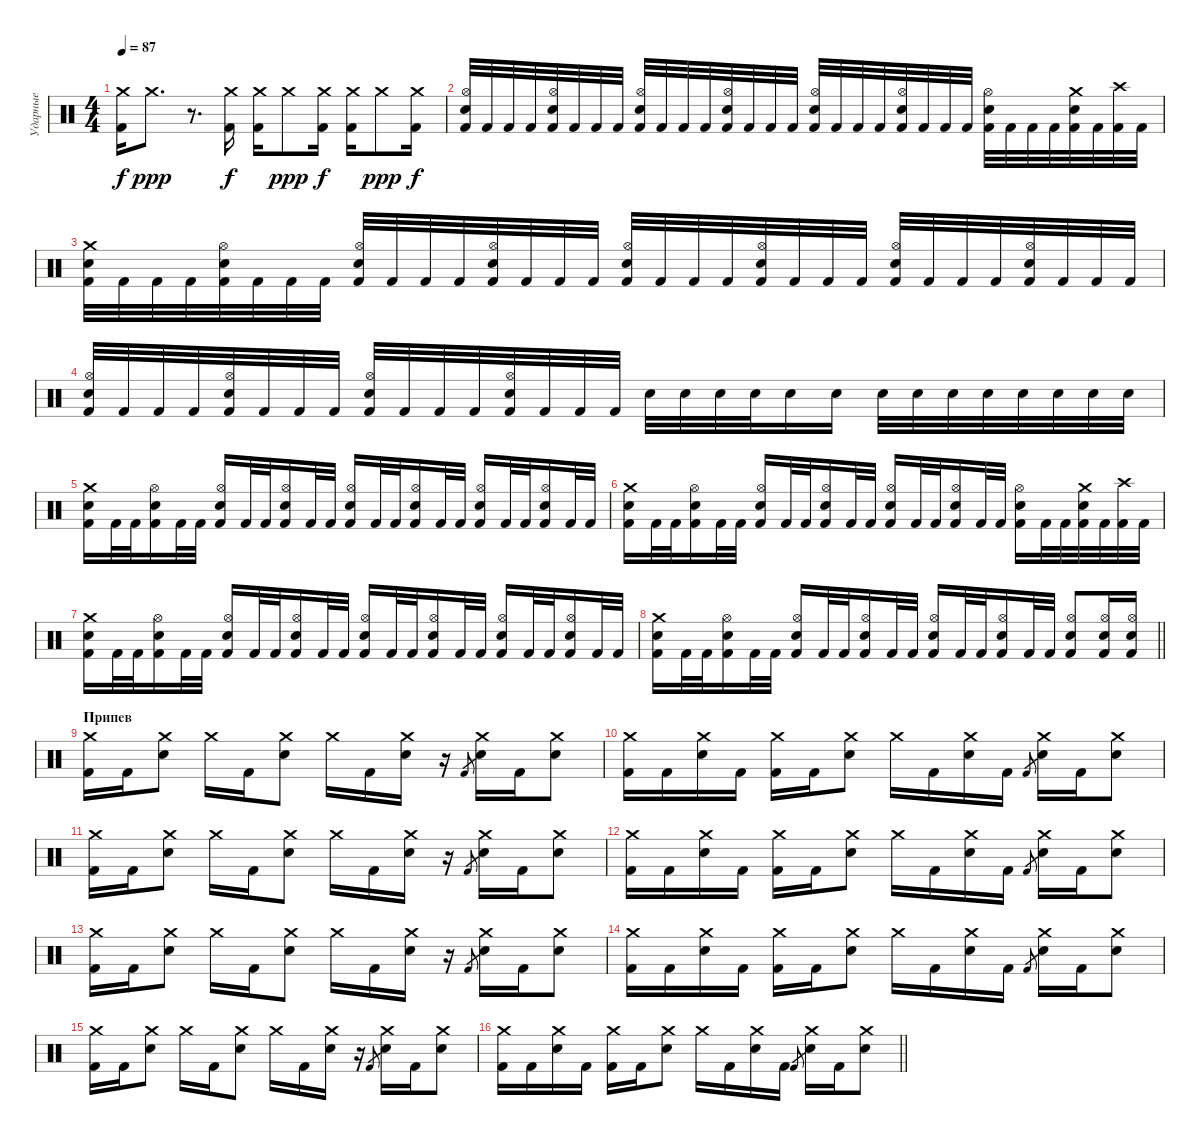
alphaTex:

\track ("Ударные" "Ударные") {instrument percussion}
\staff {score}
\articulation defaults
\ts (4 4)
\tempo 87
\clef neutral
\ks c
("Crash medium (hit)" "Kick (hit) 2").16{dy f} "Crash medium (hit)".8{d dy ppp} r.8{d} ("Crash medium (hit)" "Kick (hit) 2").16{dy f} ("Crash medium (hit)" "Kick (hit) 2").16 "Crash medium (hit)".8{dy ppp} ("Crash medium (hit)" "Kick (hit) 2").16{dy f} ("Crash medium (hit)" "Kick (hit) 2").16 "Crash medium (hit)".8{dy ppp} ("Crash medium (hit)" "Kick (hit) 2").16{dy f} |
("Hi-Hat (open)" "Electric Snare (hit)" "Kick (hit) 2").32 "Kick (hit) 2".32 "Kick (hit) 2".32 "Kick (hit) 2".32 ("Hi-Hat (open)" "Electric Snare (hit)" "Kick (hit) 2").32 "Kick (hit) 2".32 "Kick (hit) 2".32 "Kick (hit) 2".32 ("Hi-Hat (open)" "Electric Snare (hit)" "Kick (hit) 2").32 "Kick (hit) 2".32 "Kick (hit) 2".32 "Kick (hit) 2".32 ("Hi-Hat (open)" "Electric Snare (hit)" "Kick (hit) 2").32 "Kick (hit) 2".32 "Kick (hit) 2".32 "Kick (hit) 2".32 ("Hi-Hat (open)" "Electric Snare (hit)" "Kick (hit) 2").32 "Kick (hit) 2".32 "Kick (hit) 2".32 "Kick (hit) 2".32 ("Hi-Hat (open)" "Electric Snare (hit)" "Kick (hit) 2").32 "Kick (hit) 2".32 "Kick (hit) 2".32 "Kick (hit) 2".32 ("Hi-Hat (open)" "Electric Snare (hit)" "Kick (hit) 2").32 "Kick (hit) 2".32 "Kick (hit) 2".32 "Kick (hit) 2".32 ("Crash medium (hit)" "Electric Snare (hit)" "Kick (hit) 2").32 "Kick (hit) 2".32 ("Crash high (hit)" "Kick (hit) 2").32 "Kick (hit) 2".32 |
("Crash medium (hit)" "Electric Snare (hit)" "Kick (hit) 2").32 "Kick (hit) 2".32 "Kick (hit) 2".32 "Kick (hit) 2".32 ("Hi-Hat (open)" "Electric Snare (hit)" "Kick (hit) 2").32 "Kick (hit) 2".32 "Kick (hit) 2".32 "Kick (hit) 2".32 ("Hi-Hat (open)" "Electric Snare (hit)" "Kick (hit) 2").32 "Kick (hit) 2".32 "Kick (hit) 2".32 "Kick (hit) 2".32 ("Hi-Hat (open)" "Electric Snare (hit)" "Kick (hit) 2").32 "Kick (hit) 2".32 "Kick (hit) 2".32 "Kick (hit) 2".32 ("Hi-Hat (open)" "Electric Snare (hit)" "Kick (hit) 2").32 "Kick (hit) 2".32 "Kick (hit) 2".32 "Kick (hit) 2".32 ("Hi-Hat (open)" "Electric Snare (hit)" "Kick (hit) 2").32 "Kick (hit) 2".32 "Kick (hit) 2".32 "Kick (hit) 2".32 ("Hi-Hat (open)" "Electric Snare (hit)" "Kick (hit) 2").32 "Kick (hit) 2".32 "Kick (hit) 2".32 "Kick (hit) 2".32 ("Hi-Hat (open)" "Electric Snare (hit)" "Kick (hit) 2").32 "Kick (hit) 2".32 "Kick (hit) 2".32 "Kick (hit) 2".32 |
("Hi-Hat (open)" "Electric Snare (hit)" "Kick (hit) 2").32 "Kick (hit) 2".32 "Kick (hit) 2".32 "Kick (hit) 2".32 ("Hi-Hat (open)" "Electric Snare (hit)" "Kick (hit) 2").32 "Kick (hit) 2".32 "Kick (hit) 2".32 "Kick (hit) 2".32 ("Hi-Hat (open)" "Electric Snare (hit)" "Kick (hit) 2").32 "Kick (hit) 2".32 "Kick (hit) 2".32 "Kick (hit) 2".32 ("Hi-Hat (open)" "Electric Snare (hit)" "Kick (hit) 2").32 "Kick (hit) 2".32 "Kick (hit) 2".32 "Kick (hit) 2".32 "Electric Snare (hit)".32 "Electric Snare (hit)".32 "Electric Snare (hit)".32 "Electric Snare (hit)".32 "Electric Snare (hit)".16 "Electric Snare (hit)".16 "Electric Snare (hit)".32 "Electric Snare (hit)".32 "Electric Snare (hit)".32 "Electric Snare (hit)".32 "Electric Snare (hit)".32 "Electric Snare (hit)".32 "Electric Snare (hit)".32 "Electric Snare (hit)".32 |
("Crash medium (hit)" "Electric Snare (hit)" "Kick (hit) 2").16 "Kick (hit) 2".32 "Kick (hit) 2".32 ("Hi-Hat (open)" "Electric Snare (hit)" "Kick (hit) 2").16 "Kick (hit) 2".32 "Kick (hit) 2".32 ("Hi-Hat (open)" "Electric Snare (hit)" "Kick (hit) 2").16 "Kick (hit) 2".32 "Kick (hit) 2".32 ("Hi-Hat (open)" "Electric Snare (hit)" "Kick (hit) 2").16 "Kick (hit) 2".32 "Kick (hit) 2".32 ("Hi-Hat (open)" "Electric Snare (hit)" "Kick (hit) 2").16 "Kick (hit) 2".32 "Kick (hit) 2".32 ("Hi-Hat (open)" "Electric Snare (hit)" "Kick (hit) 2").16 "Kick (hit) 2".32 "Kick (hit) 2".32 ("Hi-Hat (open)" "Electric Snare (hit)" "Kick (hit) 2").16 "Kick (hit) 2".32 "Kick (hit) 2".32 ("Hi-Hat (open)" "Electric Snare (hit)" "Kick (hit) 2").16 "Kick (hit) 2".32 "Kick (hit) 2".32 |
("Crash medium (hit)" "Electric Snare (hit)" "Kick (hit) 2").16 "Kick (hit) 2".32 "Kick (hit) 2".32 ("Hi-Hat (open)" "Electric Snare (hit)" "Kick (hit) 2").16 "Kick (hit) 2".32 "Kick (hit) 2".32 ("Hi-Hat (open)" "Electric Snare (hit)" "Kick (hit) 2").16 "Kick (hit) 2".32 "Kick (hit) 2".32 ("Hi-Hat (open)" "Electric Snare (hit)" "Kick (hit) 2").16 "Kick (hit) 2".32 "Kick (hit) 2".32 ("Hi-Hat (open)" "Electric Snare (hit)" "Kick (hit) 2").16 "Kick (hit) 2".32 "Kick (hit) 2".32 ("Hi-Hat (open)" "Electric Snare (hit)" "Kick (hit) 2").16 "Kick (hit) 2".32 "Kick (hit) 2".32 ("Hi-Hat (open)" "Electric Snare (hit)" "Kick (hit) 2").16 "Kick (hit) 2".32 "Kick (hit) 2".32 ("Crash medium (hit)" "Electric Snare (hit)" "Kick (hit) 2").32 "Kick (hit) 2".32 ("Crash high (hit)" "Kick (hit) 2").32 "Kick (hit) 2".32 |
("Crash medium (hit)" "Electric Snare (hit)" "Kick (hit) 2").16 "Kick (hit) 2".32 "Kick (hit) 2".32 ("Hi-Hat (open)" "Electric Snare (hit)" "Kick (hit) 2").16 "Kick (hit) 2".32 "Kick (hit) 2".32 ("Hi-Hat (open)" "Electric Snare (hit)" "Kick (hit) 2").16 "Kick (hit) 2".32 "Kick (hit) 2".32 ("Hi-Hat (open)" "Electric Snare (hit)" "Kick (hit) 2").16 "Kick (hit) 2".32 "Kick (hit) 2".32 ("Hi-Hat (open)" "Electric Snare (hit)" "Kick (hit) 2").16 "Kick (hit) 2".32 "Kick (hit) 2".32 ("Hi-Hat (open)" "Electric Snare (hit)" "Kick (hit) 2").16 "Kick (hit) 2".32 "Kick (hit) 2".32 ("Hi-Hat (open)" "Electric Snare (hit)" "Kick (hit) 2").16 "Kick (hit) 2".32 "Kick (hit) 2".32 ("Hi-Hat (open)" "Electric Snare (hit)" "Kick (hit) 2").16 "Kick (hit) 2".32 "Kick (hit) 2".32 |
\barLineRight lightlight
("Crash medium (hit)" "Electric Snare (hit)" "Kick (hit) 2").16 "Kick (hit) 2".32 "Kick (hit) 2".32 ("Hi-Hat (open)" "Electric Snare (hit)" "Kick (hit) 2").16 "Kick (hit) 2".32 "Kick (hit) 2".32 ("Hi-Hat (open)" "Electric Snare (hit)" "Kick (hit) 2").16 "Kick (hit) 2".32 "Kick (hit) 2".32 ("Hi-Hat (open)" "Electric Snare (hit)" "Kick (hit) 2").16 "Kick (hit) 2".32 "Kick (hit) 2".32 ("Hi-Hat (open)" "Electric Snare (hit)" "Kick (hit) 2").16 "Kick (hit) 2".32 "Kick (hit) 2".32 ("Hi-Hat (open)" "Electric Snare (hit)" "Kick (hit) 2").16 "Kick (hit) 2".32 "Kick (hit) 2".32 ("Hi-Hat (open)" "Electric Snare (hit)" "Kick (hit) 2").8 ("Hi-Hat (open)" "Electric Snare (hit)" "Kick (hit) 2").16 ("Hi-Hat (open)" "Electric Snare (hit)" "Kick (hit) 2").16 |
\section ("" "Припев")
("Crash medium (hit)" "Kick (hit) 2").16 "Kick (hit) 2".16 ("Crash medium (hit)" "Electric Snare (hit)").8 "Crash medium (hit)".16 "Kick (hit) 2".16 ("Crash medium (hit)" "Electric Snare (hit)").8 "Crash medium (hit)".16 "Kick (hit) 2".16 ("Crash medium (hit)" "Electric Snare (hit)").16 r.16 "Kick (hit) 2".8{gr} ("Crash medium (hit)" "Electric Snare (hit)").16 "Kick (hit) 2".16 ("Crash medium (hit)" "Electric Snare (hit)").8 |
("Crash medium (hit)" "Kick (hit) 2").16 "Kick (hit) 2".16 ("Crash medium (hit)" "Electric Snare (hit)").16 "Kick (hit) 2".16 ("Crash medium (hit)" "Kick (hit) 2").16 "Kick (hit) 2".16 ("Crash medium (hit)" "Electric Snare (hit)").8 "Crash medium (hit)".16 "Kick (hit) 2".16 ("Crash medium (hit)" "Electric Snare (hit)").16 "Kick (hit) 2".16 "Kick (hit) 2".8{gr} ("Crash medium (hit)" "Electric Snare (hit)").16 "Kick (hit) 2".16 ("Crash medium (hit)" "Electric Snare (hit)").8 |
("Crash medium (hit)" "Kick (hit) 2").16 "Kick (hit) 2".16 ("Crash medium (hit)" "Electric Snare (hit)").8 "Crash medium (hit)".16 "Kick (hit) 2".16 ("Crash medium (hit)" "Electric Snare (hit)").8 "Crash medium (hit)".16 "Kick (hit) 2".16 ("Crash medium (hit)" "Electric Snare (hit)").16 r.16 "Kick (hit) 2".8{gr} ("Crash medium (hit)" "Electric Snare (hit)").16 "Kick (hit) 2".16 ("Crash medium (hit)" "Electric Snare (hit)").8 |
("Crash medium (hit)" "Kick (hit) 2").16 "Kick (hit) 2".16 ("Crash medium (hit)" "Electric Snare (hit)").16 "Kick (hit) 2".16 ("Crash medium (hit)" "Kick (hit) 2").16 "Kick (hit) 2".16 ("Crash medium (hit)" "Electric Snare (hit)").8 "Crash medium (hit)".16 "Kick (hit) 2".16 ("Crash medium (hit)" "Electric Snare (hit)").16 "Kick (hit) 2".16 "Kick (hit) 2".8{gr} ("Crash medium (hit)" "Electric Snare (hit)").16 "Kick (hit) 2".16 ("Crash medium (hit)" "Electric Snare (hit)").8 |
("Crash medium (hit)" "Kick (hit) 2").16 "Kick (hit) 2".16 ("Crash medium (hit)" "Electric Snare (hit)").8 "Crash medium (hit)".16 "Kick (hit) 2".16 ("Crash medium (hit)" "Electric Snare (hit)").8 "Crash medium (hit)".16 "Kick (hit) 2".16 ("Crash medium (hit)" "Electric Snare (hit)").16 r.16 "Kick (hit) 2".8{gr} ("Crash medium (hit)" "Electric Snare (hit)").16 "Kick (hit) 2".16 ("Crash medium (hit)" "Electric Snare (hit)").8 |
("Crash medium (hit)" "Kick (hit) 2").16 "Kick (hit) 2".16 ("Crash medium (hit)" "Electric Snare (hit)").16 "Kick (hit) 2".16 ("Crash medium (hit)" "Kick (hit) 2").16 "Kick (hit) 2".16 ("Crash medium (hit)" "Electric Snare (hit)").8 "Crash medium (hit)".16 "Kick (hit) 2".16 ("Crash medium (hit)" "Electric Snare (hit)").16 "Kick (hit) 2".16 "Kick (hit) 2".8{gr} ("Crash medium (hit)" "Electric Snare (hit)").16 "Kick (hit) 2".16 ("Crash medium (hit)" "Electric Snare (hit)").8 |
("Crash medium (hit)" "Kick (hit) 2").16 "Kick (hit) 2".16 ("Crash medium (hit)" "Electric Snare (hit)").8 "Crash medium (hit)".16 "Kick (hit) 2".16 ("Crash medium (hit)" "Electric Snare (hit)").8 "Crash medium (hit)".16 "Kick (hit) 2".16 ("Crash medium (hit)" "Electric Snare (hit)").16 r.16 "Kick (hit) 2".8{gr} ("Crash medium (hit)" "Electric Snare (hit)").16 "Kick (hit) 2".16 ("Crash medium (hit)" "Electric Snare (hit)").8 |
\barLineRight lightlight
("Crash medium (hit)" "Kick (hit) 2").16 "Kick (hit) 2".16 ("Crash medium (hit)" "Electric Snare (hit)").16 "Kick (hit) 2".16 ("Crash medium (hit)" "Kick (hit) 2").16 "Kick (hit) 2".16 ("Crash medium (hit)" "Electric Snare (hit)").8 "Crash medium (hit)".16 "Kick (hit) 2".16 ("Crash medium (hit)" "Electric Snare (hit)").16 "Kick (hit) 2".16 "Kick (hit) 2".8{gr} ("Crash medium (hit)" "Electric Snare (hit)").16 "Kick (hit) 2".16 ("Crash medium (hit)" "Electric Snare (hit)").8
